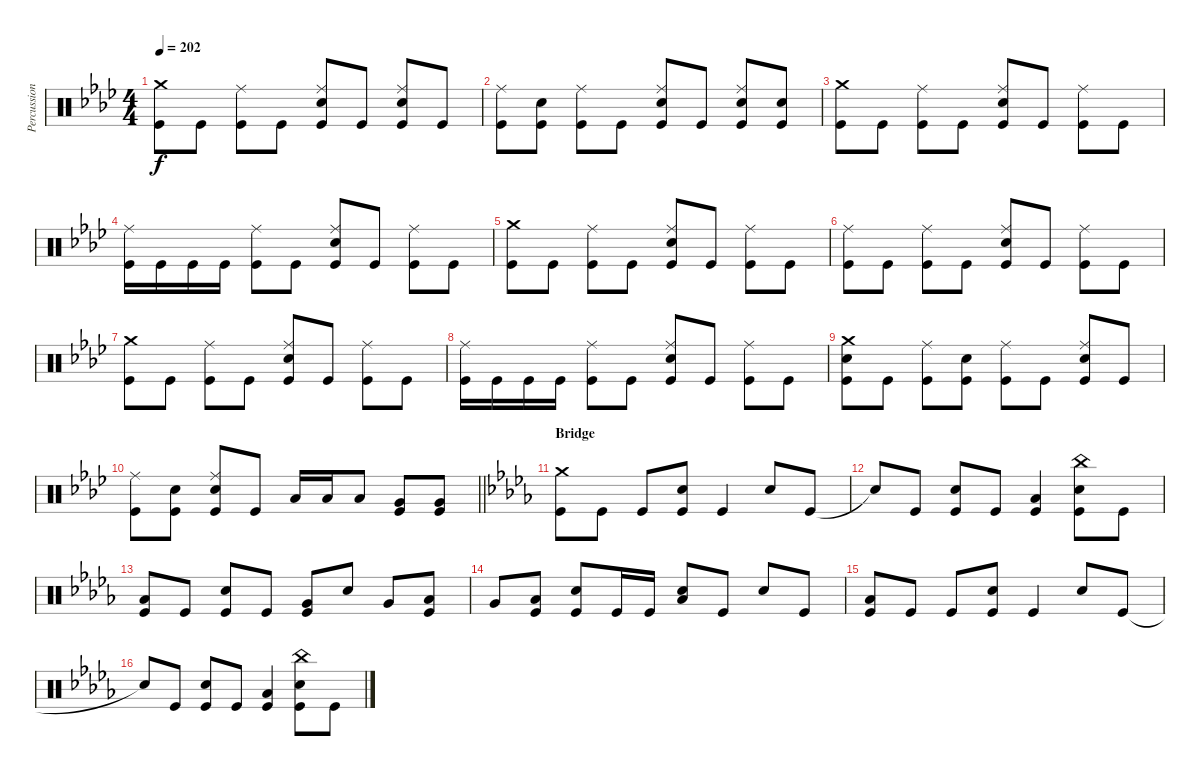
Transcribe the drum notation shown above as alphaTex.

\track ("Percussion" "Percussion") {instrument percussion}
\staff {score}
\articulation defaults
\ts (4 4)
\tempo 202
\clef neutral
\ks ab
("Crash medium (hit)" "Kick (hit)").8{dy f} "Kick (hit)".8 ("Ride (middle)" "Kick (hit)").8 "Kick (hit)".8 ("Ride (middle)" "Electric Snare (hit)" "Kick (hit)").8 "Kick (hit)".8 ("Ride (middle)" "Electric Snare (hit)" "Kick (hit)").8 "Kick (hit)".8 |
("Ride (middle)" "Kick (hit)").8 ("Electric Snare (hit)" "Kick (hit)").8 ("Ride (middle)" "Kick (hit)").8 "Kick (hit)".8 ("Ride (middle)" "Electric Snare (hit)" "Kick (hit)").8 "Kick (hit)".8 ("Ride (middle)" "Electric Snare (hit)" "Kick (hit)").8 ("Electric Snare (hit)" "Kick (hit)").8 |
("Crash medium (hit)" "Kick (hit)").8 "Kick (hit)".8 ("Ride (middle)" "Kick (hit)").8 "Kick (hit)".8 ("Ride (middle)" "Electric Snare (hit)" "Kick (hit)").8 "Kick (hit)".8 ("Ride (middle)" "Kick (hit)").8 "Kick (hit)".8 |
("Ride (middle)" "Kick (hit)").16 "Kick (hit)".16 "Kick (hit)".16 "Kick (hit)".16 ("Ride (middle)" "Kick (hit)").8 "Kick (hit)".8 ("Ride (middle)" "Electric Snare (hit)" "Kick (hit)").8 "Kick (hit)".8 ("Ride (middle)" "Kick (hit)").8 "Kick (hit)".8 |
("Crash medium (hit)" "Kick (hit)").8 "Kick (hit)".8 ("Ride (middle)" "Kick (hit)").8 "Kick (hit)".8 ("Ride (middle)" "Electric Snare (hit)" "Kick (hit)").8 "Kick (hit)".8 ("Ride (middle)" "Kick (hit)").8 "Kick (hit)".8 |
("Ride (middle)" "Kick (hit)").8 "Kick (hit)".8 ("Ride (middle)" "Kick (hit)").8 "Kick (hit)".8 ("Ride (middle)" "Electric Snare (hit)" "Kick (hit)").8 "Kick (hit)".8 ("Ride (middle)" "Kick (hit)").8 "Kick (hit)".8 |
("Crash medium (hit)" "Kick (hit)").8 "Kick (hit)".8 ("Ride (middle)" "Kick (hit)").8 "Kick (hit)".8 ("Ride (middle)" "Electric Snare (hit)" "Kick (hit)").8 "Kick (hit)".8 ("Ride (middle)" "Kick (hit)").8 "Kick (hit)".8 |
("Ride (middle)" "Kick (hit)").16 "Kick (hit)".16 "Kick (hit)".16 "Kick (hit)".16 ("Ride (middle)" "Kick (hit)").8 "Kick (hit)".8 ("Ride (middle)" "Electric Snare (hit)" "Kick (hit)").8 "Kick (hit)".8 ("Ride (middle)" "Kick (hit)").8 "Kick (hit)".8 |
("Crash medium (hit)" "Electric Snare (hit)" "Kick (hit)").8 "Kick (hit)".8 ("Ride (middle)" "Kick (hit)").8 ("Electric Snare (hit)" "Kick (hit)").8 ("Ride (middle)" "Kick (hit)").8 "Kick (hit)".8 ("Ride (middle)" "Electric Snare (hit)" "Kick (hit)").8 "Kick (hit)".8 |
\barLineRight lightlight
("Ride (middle)" "Kick (hit)").8 ("Electric Snare (hit)" "Kick (hit)").8 ("Ride (middle)" "Electric Snare (hit)" "Kick (hit)").8 "Kick (hit)".8 "Low Tom (hit)".16 "Low Tom (hit)".16 "Low Tom (hit)".8 ("Very Low Tom (hit)" "Kick (hit)").8 ("Very Low Tom (hit)" "Kick (hit)").8 |
\section ("" "Bridge")
\ks db
("Crash medium (hit)" "Kick (hit)").8 "Kick (hit)".8 "Kick (hit)".8 ("Electric Snare (hit)" "Kick (hit)").8 "Kick (hit)".4 "Electric Snare (hit)".8 "Kick (hit)".8 |
"Snare (hit)"{t}.8 "Kick (hit)".8 ("Electric Snare (hit)" "Kick (hit)").8 "Kick (hit)".8 ("Low Tom (hit)" "Kick (hit)").4 ("China (hit)" "Electric Snare (hit)" "Kick (hit)").8 "Kick (hit)".8 |
("Low Tom (hit)" "Kick (hit)").8 "Kick (hit)".8 ("Electric Snare (hit)" "Kick (hit)").8 "Kick (hit)".8 ("Very Low Tom (hit)" "Kick (hit)").8 "Electric Snare (hit)".8 "Very Low Tom (hit)".8 ("Low Floor Tom (hit)" "Kick (hit)").8 |
"Very Low Tom (hit)".8 ("Low Floor Tom (hit)" "Kick (hit)").8 ("Electric Snare (hit)" "Kick (hit)").8 "Kick (hit)".16 "Kick (hit)".16 ("Low Tom (hit)" "Electric Snare (hit)").8 "Kick (hit)".8 "Electric Snare (hit)".8 "Kick (hit)".8 |
("Low Tom (hit)" "Kick (hit)").8 "Kick (hit)".8 "Kick (hit)".8 ("Electric Snare (hit)" "Kick (hit)").8 "Kick (hit)".4 "Electric Snare (hit)".8 "Kick (hit)".8 |
"Snare (hit)"{t}.8 "Kick (hit)".8 ("Electric Snare (hit)" "Kick (hit)").8 "Kick (hit)".8 ("Low Tom (hit)" "Kick (hit)").4 ("China (hit)" "Electric Snare (hit)" "Kick (hit)").8 "Kick (hit)".8
